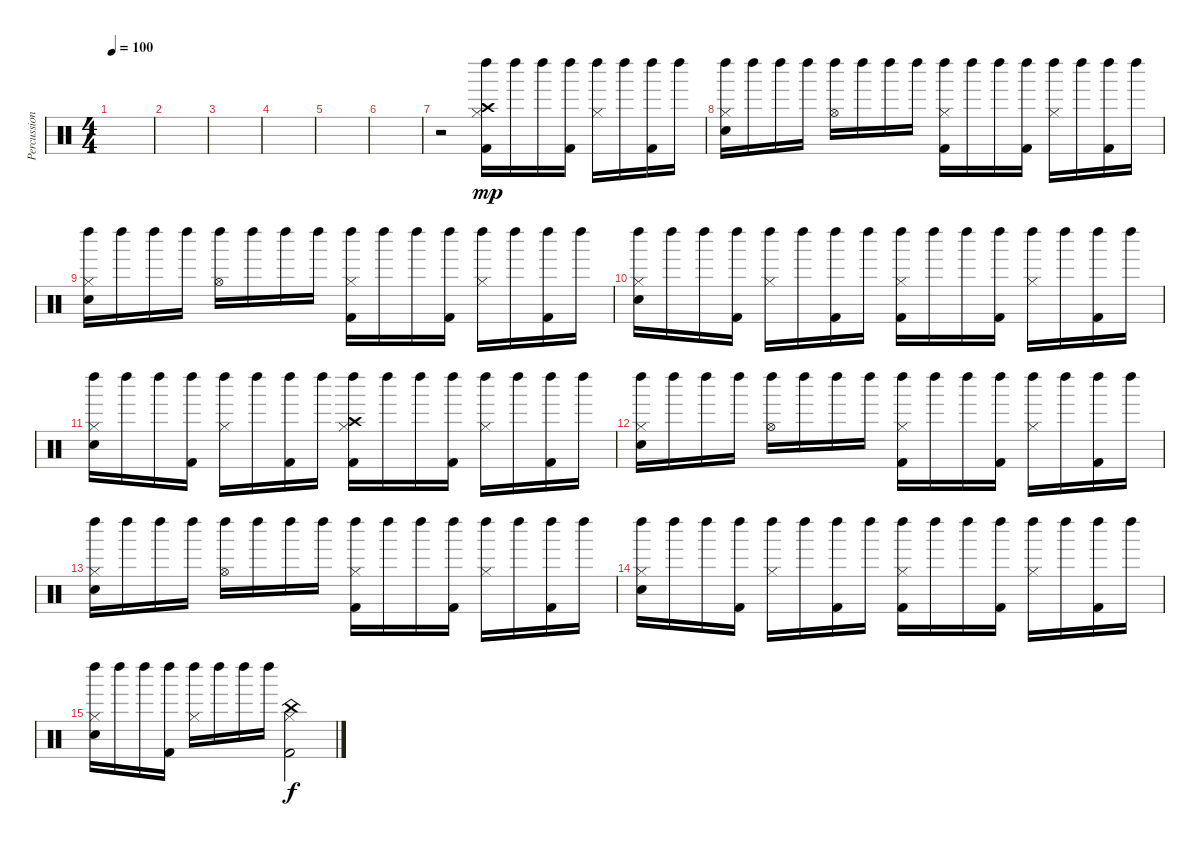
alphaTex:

\track ("Percussion" "Percussion") {instrument percussion}
\staff {score}
\articulation defaults
\ts (4 4)
\tempo 100
\clef neutral
\ks c
|
|
|
|
|
|
r.2 ("Crash high (hit)" "Hi-Hat (closed)" "Left Maraca (hit)" "Kick (hit) 2").16{dy mp} "Left Maraca (hit)".16 "Left Maraca (hit)".16 ("Left Maraca (hit)" "Kick (hit) 2").16 ("Hi-Hat (closed)" "Left Maraca (hit)").16 "Left Maraca (hit)".16 ("Left Maraca (hit)" "Kick (hit) 2").16 "Left Maraca (hit)".16 |
("Hi-Hat (closed)" "Electric Snare (hit)" "Left Maraca (hit)").16 "Left Maraca (hit)".16 "Left Maraca (hit)".16 "Left Maraca (hit)".16 ("Hi-Hat (open)" "Left Maraca (hit)").16 "Left Maraca (hit)".16 "Left Maraca (hit)".16 "Left Maraca (hit)".16 ("Hi-Hat (closed)" "Left Maraca (hit)" "Kick (hit) 2").16 "Left Maraca (hit)".16 "Left Maraca (hit)".16 ("Left Maraca (hit)" "Kick (hit) 2").16 ("Hi-Hat (closed)" "Left Maraca (hit)").16 "Left Maraca (hit)".16 ("Left Maraca (hit)" "Kick (hit) 2").16 "Left Maraca (hit)".16 |
("Hi-Hat (closed)" "Electric Snare (hit)" "Left Maraca (hit)").16 "Left Maraca (hit)".16 "Left Maraca (hit)".16 "Left Maraca (hit)".16 ("Hi-Hat (open)" "Left Maraca (hit)").16 "Left Maraca (hit)".16 "Left Maraca (hit)".16 "Left Maraca (hit)".16 ("Hi-Hat (closed)" "Left Maraca (hit)" "Kick (hit) 2").16 "Left Maraca (hit)".16 "Left Maraca (hit)".16 ("Left Maraca (hit)" "Kick (hit) 2").16 ("Hi-Hat (closed)" "Left Maraca (hit)").16 "Left Maraca (hit)".16 ("Left Maraca (hit)" "Kick (hit) 2").16 "Left Maraca (hit)".16 |
("Hi-Hat (closed)" "Electric Snare (hit)" "Left Maraca (hit)").16 "Left Maraca (hit)".16 "Left Maraca (hit)".16 ("Left Maraca (hit)" "Kick (hit) 2").16 ("Hi-Hat (closed)" "Left Maraca (hit)").16 "Left Maraca (hit)".16 ("Left Maraca (hit)" "Kick (hit) 2").16 "Left Maraca (hit)".16 ("Hi-Hat (closed)" "Left Maraca (hit)" "Kick (hit) 2").16 "Left Maraca (hit)".16 "Left Maraca (hit)".16 ("Left Maraca (hit)" "Kick (hit) 2").16 ("Hi-Hat (closed)" "Left Maraca (hit)").16 "Left Maraca (hit)".16 ("Left Maraca (hit)" "Kick (hit) 2").16 "Left Maraca (hit)".16 |
("Hi-Hat (closed)" "Electric Snare (hit)" "Left Maraca (hit)").16 "Left Maraca (hit)".16 "Left Maraca (hit)".16 ("Left Maraca (hit)" "Kick (hit) 2").16 ("Hi-Hat (closed)" "Left Maraca (hit)").16 "Left Maraca (hit)".16 ("Left Maraca (hit)" "Kick (hit) 2").16 "Left Maraca (hit)".16 ("Crash high (hit)" "Hi-Hat (closed)" "Left Maraca (hit)" "Kick (hit) 2").16 "Left Maraca (hit)".16 "Left Maraca (hit)".16 ("Left Maraca (hit)" "Kick (hit) 2").16 ("Hi-Hat (closed)" "Left Maraca (hit)").16 "Left Maraca (hit)".16 ("Left Maraca (hit)" "Kick (hit) 2").16 "Left Maraca (hit)".16 |
("Hi-Hat (closed)" "Electric Snare (hit)" "Left Maraca (hit)").16 "Left Maraca (hit)".16 "Left Maraca (hit)".16 "Left Maraca (hit)".16 ("Hi-Hat (open)" "Left Maraca (hit)").16 "Left Maraca (hit)".16 "Left Maraca (hit)".16 "Left Maraca (hit)".16 ("Hi-Hat (closed)" "Left Maraca (hit)" "Kick (hit) 2").16 "Left Maraca (hit)".16 "Left Maraca (hit)".16 ("Left Maraca (hit)" "Kick (hit) 2").16 ("Hi-Hat (closed)" "Left Maraca (hit)").16 "Left Maraca (hit)".16 ("Left Maraca (hit)" "Kick (hit) 2").16 "Left Maraca (hit)".16 |
("Hi-Hat (closed)" "Electric Snare (hit)" "Left Maraca (hit)").16 "Left Maraca (hit)".16 "Left Maraca (hit)".16 "Left Maraca (hit)".16 ("Hi-Hat (open)" "Left Maraca (hit)").16 "Left Maraca (hit)".16 "Left Maraca (hit)".16 "Left Maraca (hit)".16 ("Hi-Hat (closed)" "Left Maraca (hit)" "Kick (hit) 2").16 "Left Maraca (hit)".16 "Left Maraca (hit)".16 ("Left Maraca (hit)" "Kick (hit) 2").16 ("Hi-Hat (closed)" "Left Maraca (hit)").16 "Left Maraca (hit)".16 ("Left Maraca (hit)" "Kick (hit) 2").16 "Left Maraca (hit)".16 |
("Hi-Hat (closed)" "Electric Snare (hit)" "Left Maraca (hit)").16 "Left Maraca (hit)".16 "Left Maraca (hit)".16 ("Left Maraca (hit)" "Kick (hit) 2").16 ("Hi-Hat (closed)" "Left Maraca (hit)").16 "Left Maraca (hit)".16 ("Left Maraca (hit)" "Kick (hit) 2").16 "Left Maraca (hit)".16 ("Hi-Hat (closed)" "Left Maraca (hit)" "Kick (hit) 2").16 "Left Maraca (hit)".16 "Left Maraca (hit)".16 ("Left Maraca (hit)" "Kick (hit) 2").16 ("Hi-Hat (closed)" "Left Maraca (hit)").16 "Left Maraca (hit)".16 ("Left Maraca (hit)" "Kick (hit) 2").16 "Left Maraca (hit)".16 |
("Hi-Hat (closed)" "Electric Snare (hit)" "Left Maraca (hit)").16 "Left Maraca (hit)".16 "Left Maraca (hit)".16 ("Left Maraca (hit)" "Kick (hit) 2").16 ("Hi-Hat (closed)" "Left Maraca (hit)").16 "Left Maraca (hit)".16 "Left Maraca (hit)".16 "Left Maraca (hit)".16 ("China (hit)" "Hi-Hat (closed)" "Kick (hit) 2").2{dy f}
